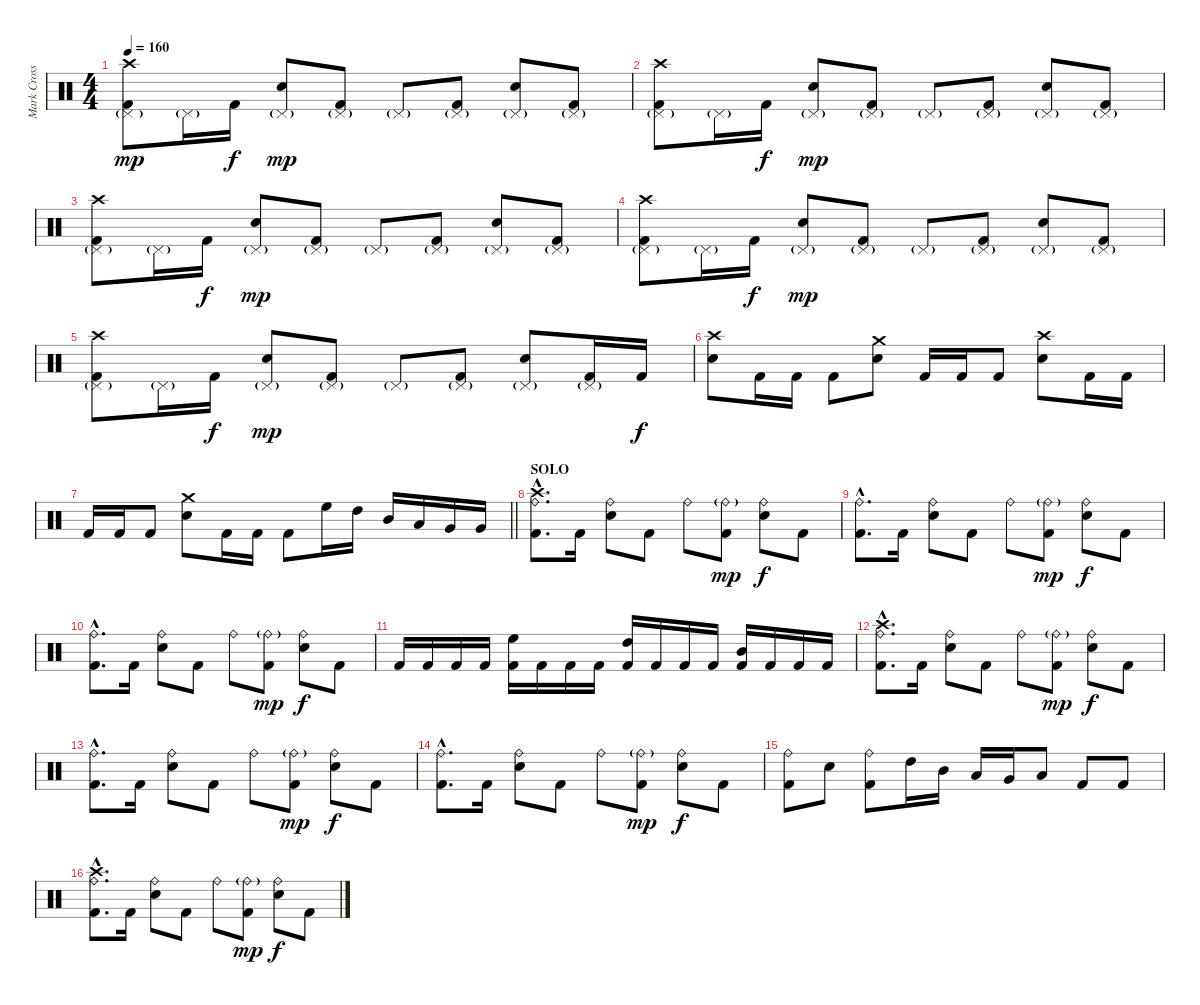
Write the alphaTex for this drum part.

\track ("Mark Cross" "Mark Cross") {instrument percussion}
\staff {score}
\articulation defaults
\ts (4 4)
\tempo 160
\clef neutral
\ks aminor
("Crash high (hit)" "Pedal Hi-Hat (hit)"{g} "Kick (hit) 2").8{dy mp} "Pedal Hi-Hat (hit)"{g}.16 "Kick (hit) 2".16{dy f} ("Pedal Hi-Hat (hit)"{g} "Electric Snare (hit)").8{dy mp} ("Pedal Hi-Hat (hit)"{g} "Kick (hit) 2").8 "Pedal Hi-Hat (hit)"{g}.8 ("Pedal Hi-Hat (hit)"{g} "Kick (hit) 2").8 ("Pedal Hi-Hat (hit)"{g} "Electric Snare (hit)").8 ("Pedal Hi-Hat (hit)"{g} "Kick (hit) 2").8 |
("Crash high (hit)" "Pedal Hi-Hat (hit)"{g} "Kick (hit) 2").8 "Pedal Hi-Hat (hit)"{g}.16 "Kick (hit) 2".16{dy f} ("Pedal Hi-Hat (hit)"{g} "Electric Snare (hit)").8{dy mp} ("Pedal Hi-Hat (hit)"{g} "Kick (hit) 2").8 "Pedal Hi-Hat (hit)"{g}.8 ("Pedal Hi-Hat (hit)"{g} "Kick (hit) 2").8 ("Pedal Hi-Hat (hit)"{g} "Electric Snare (hit)").8 ("Pedal Hi-Hat (hit)"{g} "Kick (hit) 2").8 |
("Crash high (hit)" "Pedal Hi-Hat (hit)"{g} "Kick (hit) 2").8 "Pedal Hi-Hat (hit)"{g}.16 "Kick (hit) 2".16{dy f} ("Pedal Hi-Hat (hit)"{g} "Electric Snare (hit)").8{dy mp} ("Pedal Hi-Hat (hit)"{g} "Kick (hit) 2").8 "Pedal Hi-Hat (hit)"{g}.8 ("Pedal Hi-Hat (hit)"{g} "Kick (hit) 2").8 ("Pedal Hi-Hat (hit)"{g} "Electric Snare (hit)").8 ("Pedal Hi-Hat (hit)"{g} "Kick (hit) 2").8 |
("Crash high (hit)" "Pedal Hi-Hat (hit)"{g} "Kick (hit) 2").8 "Pedal Hi-Hat (hit)"{g}.16 "Kick (hit) 2".16{dy f} ("Pedal Hi-Hat (hit)"{g} "Electric Snare (hit)").8{dy mp} ("Pedal Hi-Hat (hit)"{g} "Kick (hit) 2").8 "Pedal Hi-Hat (hit)"{g}.8 ("Pedal Hi-Hat (hit)"{g} "Kick (hit) 2").8 ("Pedal Hi-Hat (hit)"{g} "Electric Snare (hit)").8 ("Pedal Hi-Hat (hit)"{g} "Kick (hit) 2").8 |
("Crash high (hit)" "Pedal Hi-Hat (hit)"{g} "Kick (hit) 2").8 "Pedal Hi-Hat (hit)"{g}.16 "Kick (hit) 2".16{dy f} ("Pedal Hi-Hat (hit)"{g} "Electric Snare (hit)").8{dy mp} ("Pedal Hi-Hat (hit)"{g} "Kick (hit) 2").8 "Pedal Hi-Hat (hit)"{g}.8 ("Pedal Hi-Hat (hit)"{g} "Kick (hit) 2").8 ("Pedal Hi-Hat (hit)"{g} "Electric Snare (hit)").8 ("Pedal Hi-Hat (hit)"{g} "Kick (hit) 2").16 "Kick (hit) 2".16{dy f} |
("Crash high (hit)" "Electric Snare (hit)").8 "Kick (hit) 2".16 "Kick (hit) 2".16 "Kick (hit) 2".8 ("Crash medium (hit)" "Electric Snare (hit)").8 "Kick (hit) 2".16 "Kick (hit) 2".16 "Kick (hit) 2".8 ("Crash high (hit)" "Electric Snare (hit)").8 "Kick (hit) 2".16 "Kick (hit) 2".16 |
\barLineRight lightlight "Kick (hit) 2".16 "Kick (hit) 2".16 "Kick (hit) 2".8
("Crash medium (hit)" "Electric Snare (hit)").8 "Kick (hit) 2".16 "Kick (hit) 2".16 "Kick (hit) 2".8 "High Floor Tom (hit)".16 "High Tom (hit)".16 "Mid Tom (hit)".16 "Low Tom (hit)".16 "Very Low Tom (hit)".16 "Very Low Tom (hit)".16 |
\section ("" "SOLO")
("Crash high (hit)"{hac} "Ride (bell)"{hac} "Kick (hit) 2"{hac}).8{d} "Kick (hit) 2".16 ("Ride (bell)" "Electric Snare (hit)").8 "Kick (hit) 2".8 "Ride (bell)".8 ("Ride (bell)"{g} "Kick (hit) 2").8{dy mp} ("Ride (bell)" "Electric Snare (hit)").8{dy f} "Kick (hit) 2".8 |
("Ride (bell)"{hac} "Kick (hit) 2"{hac}).8{d} "Kick (hit) 2".16 ("Ride (bell)" "Electric Snare (hit)").8 "Kick (hit) 2".8 "Ride (bell)".8 ("Ride (bell)"{g} "Kick (hit) 2").8{dy mp} ("Ride (bell)" "Electric Snare (hit)").8{dy f} "Kick (hit) 2".8 |
("Ride (bell)"{hac} "Kick (hit) 2"{hac}).8{d} "Kick (hit) 2".16 ("Ride (bell)" "Electric Snare (hit)").8 "Kick (hit) 2".8 "Ride (bell)".8 ("Ride (bell)"{g} "Kick (hit) 2").8{dy mp} ("Ride (bell)" "Electric Snare (hit)").8{dy f} "Kick (hit) 2".8 |
"Kick (hit) 2".16 "Kick (hit) 2".16 "Kick (hit) 2".16 "Kick (hit) 2".16 ("High Floor Tom (hit)" "Kick (hit) 2").16 "Kick (hit) 2".16 "Kick (hit) 2".16 "Kick (hit) 2".16 ("High Tom (hit)" "Kick (hit) 2").16 "Kick (hit) 2".16 "Kick (hit) 2".16 "Kick (hit) 2".16 ("Mid Tom (hit)" "Kick (hit) 2").16 "Kick (hit) 2".16 "Kick (hit) 2".16 "Kick (hit) 2".16 |
("Crash high (hit)"{hac} "Ride (bell)"{hac} "Kick (hit) 2"{hac}).8{d} "Kick (hit) 2".16 ("Ride (bell)" "Electric Snare (hit)").8 "Kick (hit) 2".8 "Ride (bell)".8 ("Ride (bell)"{g} "Kick (hit) 2").8{dy mp} ("Ride (bell)" "Electric Snare (hit)").8{dy f} "Kick (hit) 2".8 |
("Ride (bell)"{hac} "Kick (hit) 2"{hac}).8{d} "Kick (hit) 2".16 ("Ride (bell)" "Electric Snare (hit)").8 "Kick (hit) 2".8 "Ride (bell)".8 ("Ride (bell)"{g} "Kick (hit) 2").8{dy mp} ("Ride (bell)" "Electric Snare (hit)").8{dy f} "Kick (hit) 2".8 |
("Ride (bell)"{hac} "Kick (hit) 2"{hac}).8{d} "Kick (hit) 2".16 ("Ride (bell)" "Electric Snare (hit)").8 "Kick (hit) 2".8 "Ride (bell)".8 ("Ride (bell)"{g} "Kick (hit) 2").8{dy mp} ("Ride (bell)" "Electric Snare (hit)").8{dy f} "Kick (hit) 2".8 |
("Ride (bell)" "Kick (hit) 2").8 "Electric Snare (hit)".8 ("Ride (bell)" "Kick (hit) 2").8 "High Tom (hit)".16 "Mid Tom (hit)".16 "Low Tom (hit)".16 "Very Low Tom (hit)".16 "Low Floor Tom (hit)".8 "Kick (hit) 2".8 "Kick (hit) 2".8 |
("Crash high (hit)"{hac} "Ride (bell)"{hac} "Kick (hit) 2"{hac}).8{d} "Kick (hit) 2".16 ("Ride (bell)" "Electric Snare (hit)").8 "Kick (hit) 2".8 "Ride (bell)".8 ("Ride (bell)"{g} "Kick (hit) 2").8{dy mp} ("Ride (bell)" "Electric Snare (hit)").8{dy f} "Kick (hit) 2".8
